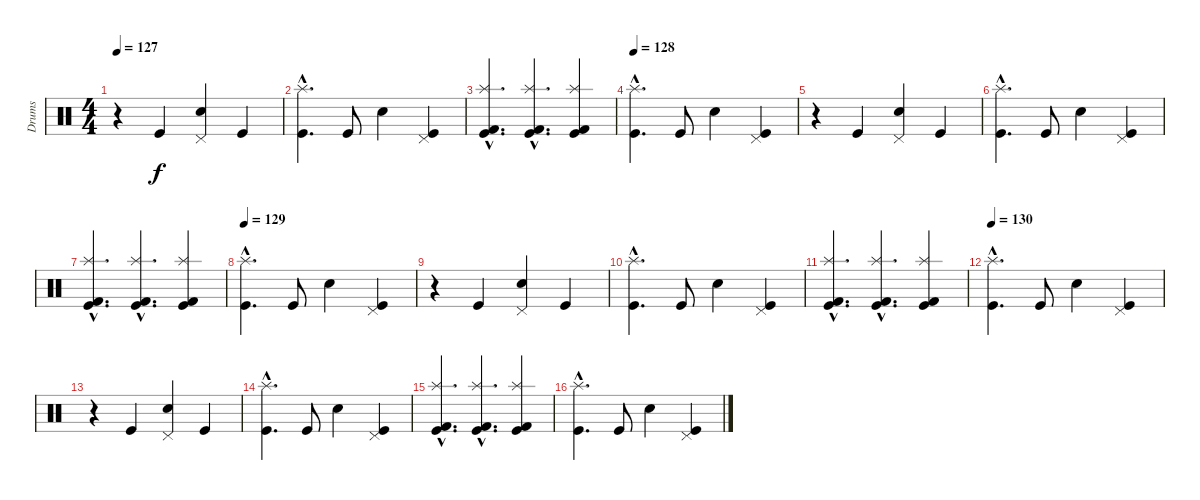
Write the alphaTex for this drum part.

\track ("Drums" "Drums") {instrument percussion}
\staff {score}
\articulation defaults
\ts (4 4)
\tempo 127
\clef neutral
\ks c
r.4{dy f} "Kick (hit)".4 ("Electric Snare (hit)" "Pedal Hi-Hat (hit)").4 "Kick (hit)".4 |
("Kick (hit)"{hac} "Splash (hit)"{hac}).4{d} "Kick (hit)".8 "Electric Snare (hit)".4 ("Kick (hit)" "Pedal Hi-Hat (hit)").4 |
("Kick (hit) 2"{hac} "Kick (hit)"{hac} "Splash (hit)"{hac}).4{d} ("Kick (hit) 2"{hac} "Kick (hit)"{hac} "Splash (hit)"{hac}).4{d} ("Kick (hit) 2" "Kick (hit)" "Splash (hit)").4 |
\tempo 128
("Kick (hit)"{hac} "Splash (hit)"{hac}).4{d} "Kick (hit)".8 "Electric Snare (hit)".4 ("Kick (hit)" "Pedal Hi-Hat (hit)").4 |
r.4 "Kick (hit)".4 ("Electric Snare (hit)" "Pedal Hi-Hat (hit)").4 "Kick (hit)".4 |
("Kick (hit)"{hac} "Splash (hit)"{hac}).4{d} "Kick (hit)".8 "Electric Snare (hit)".4 ("Kick (hit)" "Pedal Hi-Hat (hit)").4 |
("Kick (hit) 2"{hac} "Kick (hit)"{hac} "Splash (hit)"{hac}).4{d} ("Kick (hit) 2"{hac} "Kick (hit)"{hac} "Splash (hit)"{hac}).4{d} ("Kick (hit) 2" "Kick (hit)" "Splash (hit)").4 |
\tempo 129
("Kick (hit)"{hac} "Splash (hit)"{hac}).4{d} "Kick (hit)".8 "Electric Snare (hit)".4 ("Kick (hit)" "Pedal Hi-Hat (hit)").4 |
r.4 "Kick (hit)".4 ("Electric Snare (hit)" "Pedal Hi-Hat (hit)").4 "Kick (hit)".4 |
("Kick (hit)"{hac} "Splash (hit)"{hac}).4{d} "Kick (hit)".8 "Electric Snare (hit)".4 ("Kick (hit)" "Pedal Hi-Hat (hit)").4 |
("Kick (hit) 2"{hac} "Kick (hit)"{hac} "Splash (hit)"{hac}).4{d} ("Kick (hit) 2"{hac} "Kick (hit)"{hac} "Splash (hit)"{hac}).4{d} ("Kick (hit) 2" "Kick (hit)" "Splash (hit)").4 |
\tempo 130
("Kick (hit)"{hac} "Splash (hit)"{hac}).4{d} "Kick (hit)".8 "Electric Snare (hit)".4 ("Kick (hit)" "Pedal Hi-Hat (hit)").4 |
r.4 "Kick (hit)".4 ("Electric Snare (hit)" "Pedal Hi-Hat (hit)").4 "Kick (hit)".4 |
("Kick (hit)"{hac} "Splash (hit)"{hac}).4{d} "Kick (hit)".8 "Electric Snare (hit)".4 ("Kick (hit)" "Pedal Hi-Hat (hit)").4 |
("Kick (hit) 2"{hac} "Kick (hit)"{hac} "Splash (hit)"{hac}).4{d} ("Kick (hit) 2"{hac} "Kick (hit)"{hac} "Splash (hit)"{hac}).4{d} ("Kick (hit) 2" "Kick (hit)" "Splash (hit)").4 |
("Kick (hit)"{hac} "Splash (hit)"{hac}).4{d} "Kick (hit)".8 "Electric Snare (hit)".4 ("Kick (hit)" "Pedal Hi-Hat (hit)").4
